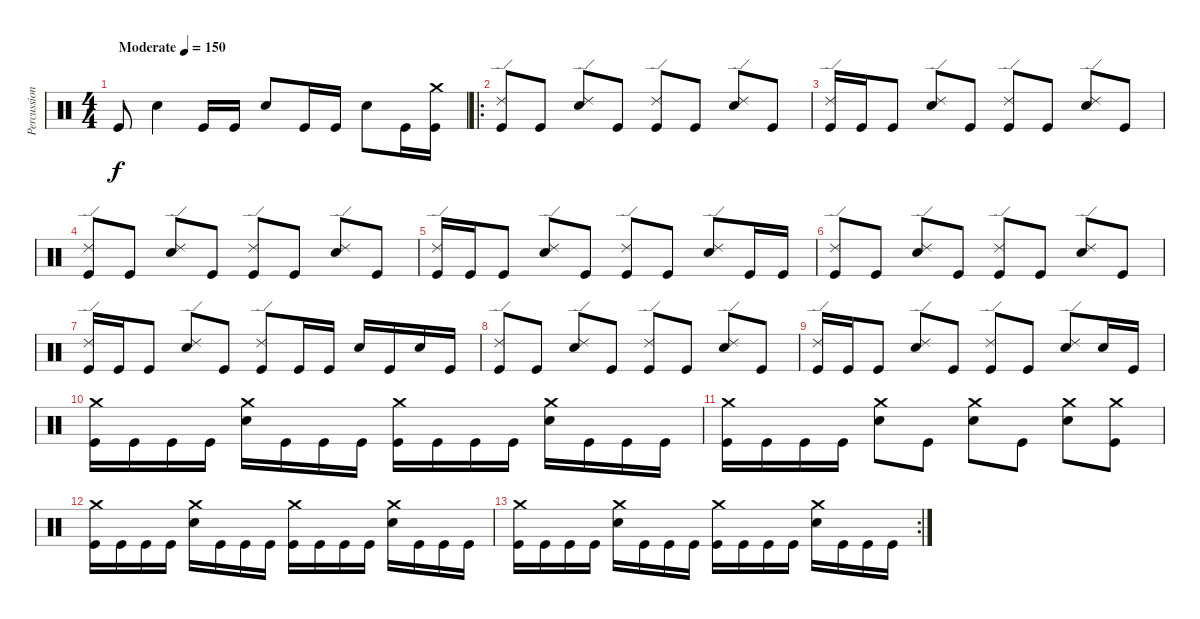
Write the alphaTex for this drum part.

\track ("Percussion" "Percussion") {instrument percussion}
\staff {score}
\articulation defaults
\ts (4 4)
\tempo (150 "Moderate")
\clef neutral
\ks c "Kick (hit)".8{dy f} "Electric Snare (hit)".4 "Kick (hit)".16 "Kick (hit)".16 "Electric Snare (hit)".8 "Kick (hit)".16 "Kick (hit)".16 "Electric Snare (hit)".8 "Kick (hit)".16
("Crash medium (hit)" "Kick (hit)").16 |
\ro
("Ride (edge) 2" "Kick (hit)").8 "Kick (hit)".8 ("Ride (edge) 2" "Electric Snare (hit)").8 "Kick (hit)".8 ("Ride (edge) 2" "Kick (hit)").8 "Kick (hit)".8 ("Ride (edge) 2" "Electric Snare (hit)").8 "Kick (hit)".8 |
("Ride (edge) 2" "Kick (hit)").16 "Kick (hit)".16 "Kick (hit)".8 ("Ride (edge) 2" "Electric Snare (hit)").8 "Kick (hit)".8 ("Ride (edge) 2" "Kick (hit)").8 "Kick (hit)".8 ("Ride (edge) 2" "Electric Snare (hit)").8 "Kick (hit)".8 |
("Ride (edge) 2" "Kick (hit)").8 "Kick (hit)".8 ("Ride (edge) 2" "Electric Snare (hit)").8 "Kick (hit)".8 ("Ride (edge) 2" "Kick (hit)").8 "Kick (hit)".8 ("Ride (edge) 2" "Electric Snare (hit)").8 "Kick (hit)".8 |
("Ride (edge) 2" "Kick (hit)").16 "Kick (hit)".16 "Kick (hit)".8 ("Ride (edge) 2" "Electric Snare (hit)").8 "Kick (hit)".8 ("Ride (edge) 2" "Kick (hit)").8 "Kick (hit)".8 ("Ride (edge) 2" "Electric Snare (hit)").8 "Kick (hit)".16 "Kick (hit)".16 |
("Ride (edge) 2" "Kick (hit)").8 "Kick (hit)".8 ("Ride (edge) 2" "Electric Snare (hit)").8 "Kick (hit)".8 ("Ride (edge) 2" "Kick (hit)").8 "Kick (hit)".8 ("Ride (edge) 2" "Electric Snare (hit)").8 "Kick (hit)".8 |
("Ride (edge) 2" "Kick (hit)").16 "Kick (hit)".16 "Kick (hit)".8 ("Ride (edge) 2" "Electric Snare (hit)").8 "Kick (hit)".8 ("Ride (edge) 2" "Kick (hit)").8 "Kick (hit)".16 "Kick (hit)".16 "Electric Snare (hit)".16 "Kick (hit)".16 "Electric Snare (hit)".16 "Kick (hit)".16 |
("Ride (edge) 2" "Kick (hit)").8 "Kick (hit)".8 ("Ride (edge) 2" "Electric Snare (hit)").8 "Kick (hit)".8 ("Ride (edge) 2" "Kick (hit)").8 "Kick (hit)".8 ("Ride (edge) 2" "Electric Snare (hit)").8 "Kick (hit)".8 |
("Ride (edge) 2" "Kick (hit)").16 "Kick (hit)".16 "Kick (hit)".8 ("Ride (edge) 2" "Electric Snare (hit)").8 "Kick (hit)".8 ("Ride (edge) 2" "Kick (hit)").8 "Kick (hit)".8 ("Ride (edge) 2" "Electric Snare (hit)").8 "Electric Snare (hit)".16 "Kick (hit)".16 |
("Crash medium (hit)" "Kick (hit)").16 "Kick (hit)".16 "Kick (hit)".16 "Kick (hit)".16 ("Crash medium (hit)" "Electric Snare (hit)").16 "Kick (hit)".16 "Kick (hit)".16 "Kick (hit)".16 ("Crash medium (hit)" "Kick (hit)").16 "Kick (hit)".16 "Kick (hit)".16 "Kick (hit)".16 ("Crash medium (hit)" "Electric Snare (hit)").16 "Kick (hit)".16 "Kick (hit)".16 "Kick (hit)".16 |
("Crash medium (hit)" "Kick (hit)").16 "Kick (hit)".16 "Kick (hit)".16 "Kick (hit)".16 ("Crash medium (hit)" "Electric Snare (hit)").8 "Kick (hit)".8 ("Crash medium (hit)" "Electric Snare (hit)").8 "Kick (hit)".8 ("Crash medium (hit)" "Electric Snare (hit)").8 ("Crash medium (hit)" "Kick (hit)").8 |
("Crash medium (hit)" "Kick (hit)").16 "Kick (hit)".16 "Kick (hit)".16 "Kick (hit)".16 ("Crash medium (hit)" "Electric Snare (hit)").16 "Kick (hit)".16 "Kick (hit)".16 "Kick (hit)".16 ("Crash medium (hit)" "Kick (hit)").16 "Kick (hit)".16 "Kick (hit)".16 "Kick (hit)".16 ("Crash medium (hit)" "Electric Snare (hit)").16 "Kick (hit)".16 "Kick (hit)".16 "Kick (hit)".16 |
\rc 2
("Crash medium (hit)" "Kick (hit)").16 "Kick (hit)".16 "Kick (hit)".16 "Kick (hit)".16 ("Crash medium (hit)" "Electric Snare (hit)").16 "Kick (hit)".16 "Kick (hit)".16 "Kick (hit)".16 ("Crash medium (hit)" "Kick (hit)").16 "Kick (hit)".16 "Kick (hit)".16 "Kick (hit)".16 ("Crash medium (hit)" "Electric Snare (hit)").16 "Kick (hit)".16 "Kick (hit)".16 "Kick (hit)".16
